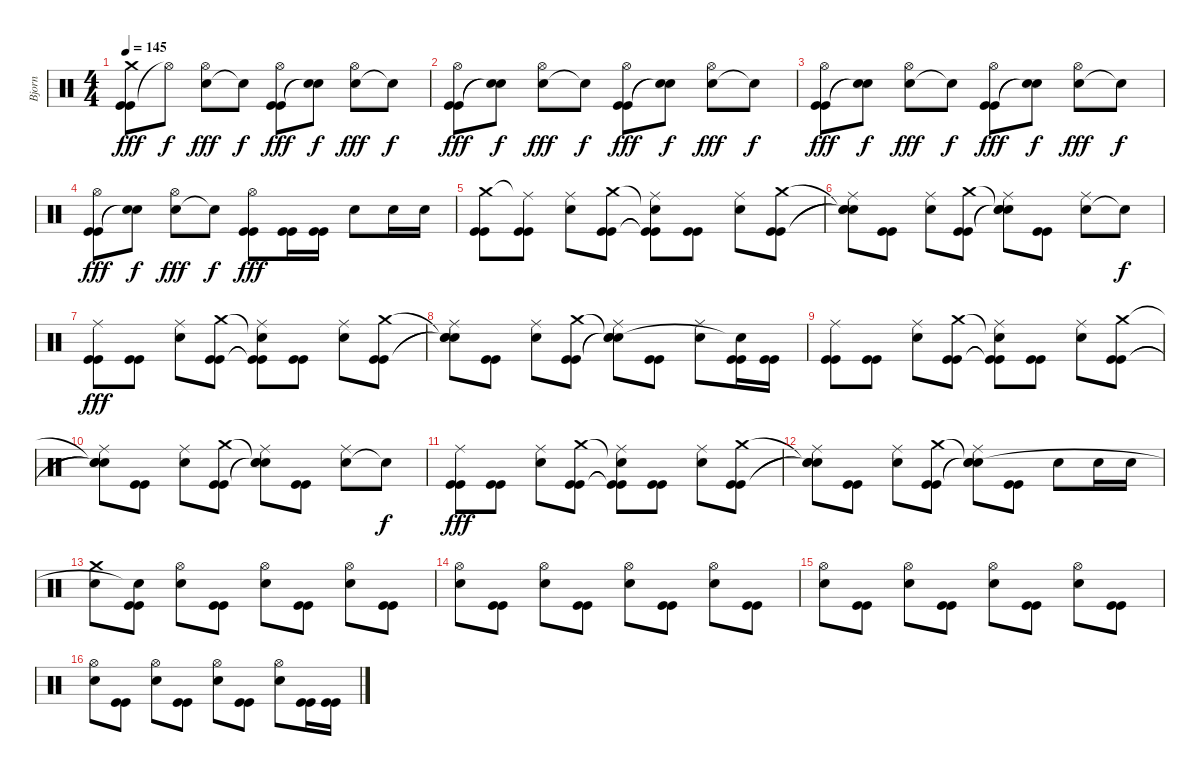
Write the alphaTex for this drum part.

\track ("Bjorn" "Bjorn") {instrument percussion}
\staff {score}
\articulation defaults
\ts (4 4)
\tempo 145
\clef neutral
\ks c
("Kick (hit)" "Kick (hit)" "Crash medium (hit)").8{dy fff} "Hi-Hat (open)"{t}.8{dy f} ("Snare (hit) 2" "Hi-Hat (open)").8{dy fff} "Snare (hit)"{t}.8{dy f} ("Kick (hit)" "Kick (hit)" "Hi-Hat (open)").8{dy fff} ("Snare (hit)"{t} "Snare (hit)"{t}).8{dy f} ("Snare (hit) 2" "Hi-Hat (open)").8{dy fff} "Snare (hit)"{t}.8{dy f} |
("Kick (hit)" "Kick (hit)" "Hi-Hat (open)").8{dy fff} ("Snare (hit)"{t} "Snare (hit)"{t}).8{dy f} ("Snare (hit) 2" "Hi-Hat (open)").8{dy fff} "Snare (hit)"{t}.8{dy f} ("Kick (hit)" "Kick (hit)" "Hi-Hat (open)").8{dy fff} ("Snare (hit)"{t} "Snare (hit)"{t}).8{dy f} ("Snare (hit) 2" "Hi-Hat (open)").8{dy fff} "Snare (hit)"{t}.8{dy f} |
("Kick (hit)" "Kick (hit)" "Hi-Hat (open)").8{dy fff} ("Snare (hit)"{t} "Snare (hit)"{t}).8{dy f} ("Snare (hit) 2" "Hi-Hat (open)").8{dy fff} "Snare (hit)"{t}.8{dy f} ("Kick (hit)" "Kick (hit)" "Hi-Hat (open)").8{dy fff} ("Snare (hit)"{t} "Snare (hit)"{t}).8{dy f} ("Snare (hit) 2" "Hi-Hat (open)").8{dy fff} "Snare (hit)"{t}.8{dy f} |
("Kick (hit)" "Kick (hit)" "Hi-Hat (open)").8{dy fff} ("Snare (hit)"{t} "Snare (hit)"{t}).8{dy f} ("Snare (hit) 2" "Hi-Hat (open)").8{dy fff} "Snare (hit)"{t}.8{dy f} ("Kick (hit)" "Kick (hit)" "Hi-Hat (open)").8{dy fff} ("Kick (hit)" "Kick (hit)").16 ("Kick (hit)" "Kick (hit)").16 "Snare (hit) 2".8 "Snare (hit) 2".16 "Snare (hit) 2".16 |
("Kick (hit)" "Kick (hit)" "Crash medium (hit)").8 ("Kick (hit)" "Kick (hit)" "Ride (middle)"{t}).8 ("Snare (hit) 2" "Ride (middle)").8 ("Kick (hit)" "Kick (hit)" "Crash medium (hit)").8 ("Kick (hit)"{t} "Kick (hit)"{t} "Snare (hit)"{t} "Ride (middle)").8 ("Kick (hit)" "Kick (hit)").8 ("Snare (hit) 2" "Ride (middle)").8 ("Kick (hit)" "Kick (hit)" "Crash medium (hit)").8 |
("Snare (hit)"{t} "Snare (hit)"{t} "Snare (hit)"{t} "Ride (middle)").8 ("Kick (hit)" "Kick (hit)").8 ("Snare (hit) 2" "Ride (middle)").8 ("Kick (hit)" "Kick (hit)" "Crash medium (hit)").8 ("Snare (hit)"{t} "Snare (hit)"{t} "Snare (hit)"{t} "Ride (middle)").8 ("Kick (hit)" "Kick (hit)").8 ("Snare (hit) 2" "Ride (middle)").8 "Snare (hit)"{t}.8{dy f} |
("Kick (hit)" "Kick (hit)" "Ride (middle)").8{dy fff} ("Kick (hit)" "Kick (hit)").8 ("Snare (hit) 2" "Ride (middle)").8 ("Kick (hit)" "Kick (hit)" "Crash medium (hit)").8 ("Kick (hit)"{t} "Kick (hit)"{t} "Snare (hit)"{t} "Ride (middle)").8 ("Kick (hit)" "Kick (hit)").8 ("Snare (hit) 2" "Ride (middle)").8 ("Kick (hit)" "Kick (hit)" "Crash medium (hit)").8 |
("Snare (hit)"{t} "Snare (hit)"{t} "Snare (hit)"{t} "Ride (middle)").8 ("Kick (hit)" "Kick (hit)").8 ("Snare (hit) 2" "Ride (middle)").8 ("Kick (hit)" "Kick (hit)" "Crash medium (hit)").8 ("Snare (hit)"{t} "Snare (hit)"{t} "Snare (hit)"{t} "Ride (middle)").8 ("Kick (hit)" "Kick (hit)").8 ("Snare (hit) 2" "Ride (middle)").8 ("Kick (hit)" "Kick (hit)" "Snare (hit)"{t}).16 ("Kick (hit)" "Kick (hit)").16 |
("Kick (hit)" "Kick (hit)" "Ride (middle)").8 ("Kick (hit)" "Kick (hit)").8 ("Snare (hit) 2" "Ride (middle)").8 ("Kick (hit)" "Kick (hit)" "Crash medium (hit)").8 ("Kick (hit)"{t} "Kick (hit)"{t} "Snare (hit)"{t} "Ride (middle)").8 ("Kick (hit)" "Kick (hit)").8 ("Snare (hit) 2" "Ride (middle)").8 ("Kick (hit)" "Kick (hit)" "Crash medium (hit)").8 |
("Snare (hit)"{t} "Snare (hit)"{t} "Snare (hit)"{t} "Ride (middle)").8 ("Kick (hit)" "Kick (hit)").8 ("Snare (hit) 2" "Ride (middle)").8 ("Kick (hit)" "Kick (hit)" "Crash medium (hit)").8 ("Snare (hit)"{t} "Snare (hit)"{t} "Snare (hit)"{t} "Ride (middle)").8 ("Kick (hit)" "Kick (hit)").8 ("Snare (hit) 2" "Ride (middle)").8 "Snare (hit)"{t}.8{dy f} |
("Kick (hit)" "Kick (hit)" "Ride (middle)").8{dy fff} ("Kick (hit)" "Kick (hit)").8 ("Snare (hit) 2" "Ride (middle)").8 ("Kick (hit)" "Kick (hit)" "Crash medium (hit)").8 ("Kick (hit)"{t} "Kick (hit)"{t} "Snare (hit)"{t} "Ride (middle)").8 ("Kick (hit)" "Kick (hit)").8 ("Snare (hit) 2" "Ride (middle)").8 ("Kick (hit)" "Kick (hit)" "Crash medium (hit)").8 |
("Snare (hit)"{t} "Snare (hit)"{t} "Snare (hit)"{t} "Ride (middle)").8 ("Kick (hit)" "Kick (hit)").8 ("Snare (hit) 2" "Ride (middle)").8 ("Kick (hit)" "Kick (hit)" "Crash medium (hit)").8 ("Snare (hit)"{t} "Snare (hit)"{t} "Snare (hit)"{t} "Ride (middle)").8 ("Kick (hit)" "Kick (hit)").8 "Snare (hit) 2".8 "Snare (hit) 2".16 "Snare (hit) 2".16 |
("Snare (hit) 2" "Crash medium (hit)").8 ("Kick (hit)" "Kick (hit)" "Snare (hit)"{t}).8 ("Snare (hit) 2" "Hi-Hat (open)").8 ("Kick (hit)" "Kick (hit)").8 ("Snare (hit) 2" "Hi-Hat (open)").8 ("Kick (hit)" "Kick (hit)").8 ("Snare (hit) 2" "Hi-Hat (open)").8 ("Kick (hit)" "Kick (hit)").8 |
("Snare (hit) 2" "Hi-Hat (open)").8 ("Kick (hit)" "Kick (hit)").8 ("Snare (hit) 2" "Hi-Hat (open)").8 ("Kick (hit)" "Kick (hit)").8 ("Snare (hit) 2" "Hi-Hat (open)").8 ("Kick (hit)" "Kick (hit)").8 ("Snare (hit) 2" "Hi-Hat (open)").8 ("Kick (hit)" "Kick (hit)").8 |
("Snare (hit) 2" "Hi-Hat (open)").8 ("Kick (hit)" "Kick (hit)").8 ("Snare (hit) 2" "Hi-Hat (open)").8 ("Kick (hit)" "Kick (hit)").8 ("Snare (hit) 2" "Hi-Hat (open)").8 ("Kick (hit)" "Kick (hit)").8 ("Snare (hit) 2" "Hi-Hat (open)").8 ("Kick (hit)" "Kick (hit)").8 |
("Snare (hit) 2" "Hi-Hat (open)").8 ("Kick (hit)" "Kick (hit)").8 ("Snare (hit) 2" "Hi-Hat (open)").8 ("Kick (hit)" "Kick (hit)").8 ("Snare (hit) 2" "Hi-Hat (open)").8 ("Kick (hit)" "Kick (hit)").8 ("Snare (hit) 2" "Hi-Hat (open)").8 ("Kick (hit)" "Kick (hit)").16 ("Kick (hit)" "Kick (hit)").16
